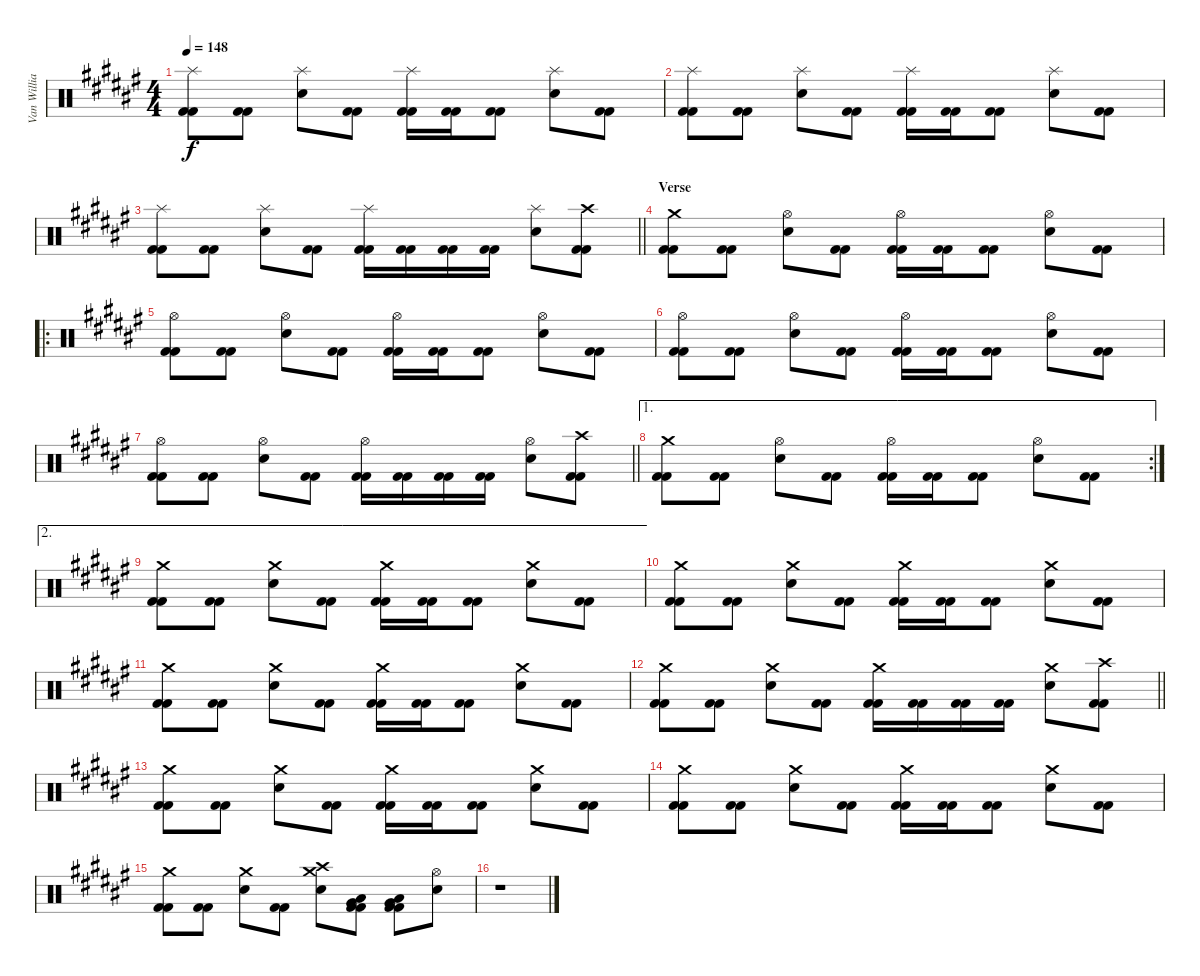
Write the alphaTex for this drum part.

\track ("Van Williams" "Van Willia") {instrument percussion}
\staff {score}
\articulation defaults
\ts (4 4)
\tempo 148
\clef neutral
\ks f#
("Splash (hit)" "Kick (hit) 2" "Kick (hit) 2").8{dy f} ("Kick (hit) 2" "Kick (hit) 2").8 ("Splash (hit)" "Electric Snare (hit)").8 ("Kick (hit) 2" "Kick (hit) 2").8 ("Splash (hit)" "Kick (hit) 2" "Kick (hit) 2").16 ("Kick (hit) 2" "Kick (hit) 2").16 ("Kick (hit) 2" "Kick (hit) 2").8 ("Splash (hit)" "Electric Snare (hit)").8 ("Kick (hit) 2" "Kick (hit) 2").8 |
("Splash (hit)" "Kick (hit) 2" "Kick (hit) 2").8 ("Kick (hit) 2" "Kick (hit) 2").8 ("Splash (hit)" "Electric Snare (hit)").8 ("Kick (hit) 2" "Kick (hit) 2").8 ("Splash (hit)" "Kick (hit) 2" "Kick (hit) 2").16 ("Kick (hit) 2" "Kick (hit) 2").16 ("Kick (hit) 2" "Kick (hit) 2").8 ("Splash (hit)" "Electric Snare (hit)").8 ("Kick (hit) 2" "Kick (hit) 2").8 |
\barLineRight lightlight
("Splash (hit)" "Kick (hit) 2" "Kick (hit) 2").8 ("Kick (hit) 2" "Kick (hit) 2").8 ("Splash (hit)" "Electric Snare (hit)").8 ("Kick (hit) 2" "Kick (hit) 2").8 ("Splash (hit)" "Kick (hit) 2" "Kick (hit) 2").16 ("Kick (hit) 2" "Kick (hit) 2").16 ("Kick (hit) 2" "Kick (hit) 2").16 ("Kick (hit) 2" "Kick (hit) 2").16 ("Splash (hit)" "Electric Snare (hit)").8 ("Crash high (hit)" "Kick (hit) 2" "Kick (hit) 2").8 |
\section ("" "Verse")
("Crash medium (hit)" "Kick (hit) 2" "Kick (hit) 2").8 ("Kick (hit) 2" "Kick (hit) 2").8 ("Hi-Hat (open)" "Electric Snare (hit)").8 ("Kick (hit) 2" "Kick (hit) 2").8 ("Hi-Hat (open)" "Kick (hit) 2" "Kick (hit) 2").16 ("Kick (hit) 2" "Kick (hit) 2").16 ("Kick (hit) 2" "Kick (hit) 2").8 ("Hi-Hat (open)" "Electric Snare (hit)").8 ("Kick (hit) 2" "Kick (hit) 2").8 |
\ro
("Hi-Hat (open)" "Kick (hit) 2" "Kick (hit) 2").8 ("Kick (hit) 2" "Kick (hit) 2").8 ("Hi-Hat (open)" "Electric Snare (hit)").8 ("Kick (hit) 2" "Kick (hit) 2").8 ("Hi-Hat (open)" "Kick (hit) 2" "Kick (hit) 2").16 ("Kick (hit) 2" "Kick (hit) 2").16 ("Kick (hit) 2" "Kick (hit) 2").8 ("Hi-Hat (open)" "Electric Snare (hit)").8 ("Kick (hit) 2" "Kick (hit) 2").8 |
("Hi-Hat (open)" "Kick (hit) 2" "Kick (hit) 2").8 ("Kick (hit) 2" "Kick (hit) 2").8 ("Hi-Hat (open)" "Electric Snare (hit)").8 ("Kick (hit) 2" "Kick (hit) 2").8 ("Hi-Hat (open)" "Kick (hit) 2" "Kick (hit) 2").16 ("Kick (hit) 2" "Kick (hit) 2").16 ("Kick (hit) 2" "Kick (hit) 2").8 ("Hi-Hat (open)" "Electric Snare (hit)").8 ("Kick (hit) 2" "Kick (hit) 2").8 |
\barLineRight lightlight
("Hi-Hat (open)" "Kick (hit) 2" "Kick (hit) 2").8 ("Kick (hit) 2" "Kick (hit) 2").8 ("Hi-Hat (open)" "Electric Snare (hit)").8 ("Kick (hit) 2" "Kick (hit) 2").8 ("Hi-Hat (open)" "Kick (hit) 2" "Kick (hit) 2").16 ("Kick (hit) 2" "Kick (hit) 2").16 ("Kick (hit) 2" "Kick (hit) 2").16 ("Kick (hit) 2" "Kick (hit) 2").16 ("Hi-Hat (open)" "Electric Snare (hit)").8 ("Crash high (hit)" "Kick (hit) 2" "Kick (hit) 2").8 |
\ae 1
\rc 2
("Crash medium (hit)" "Kick (hit) 2" "Kick (hit) 2").8 ("Kick (hit) 2" "Kick (hit) 2").8 ("Hi-Hat (open)" "Electric Snare (hit)").8 ("Kick (hit) 2" "Kick (hit) 2").8 ("Hi-Hat (open)" "Kick (hit) 2" "Kick (hit) 2").16 ("Kick (hit) 2" "Kick (hit) 2").16 ("Kick (hit) 2" "Kick (hit) 2").8 ("Hi-Hat (open)" "Electric Snare (hit)").8 ("Kick (hit) 2" "Kick (hit) 2").8 |
\ae 2
("Crash medium (hit)" "Kick (hit) 2" "Kick (hit) 2").8 ("Kick (hit) 2" "Kick (hit) 2").8 ("Crash medium (hit)" "Electric Snare (hit)").8 ("Kick (hit) 2" "Kick (hit) 2").8 ("Crash medium (hit)" "Kick (hit) 2" "Kick (hit) 2").16 ("Kick (hit) 2" "Kick (hit) 2").16 ("Kick (hit) 2" "Kick (hit) 2").8 ("Crash medium (hit)" "Electric Snare (hit)").8 ("Kick (hit) 2" "Kick (hit) 2").8 |
("Crash medium (hit)" "Kick (hit) 2" "Kick (hit) 2").8 ("Kick (hit) 2" "Kick (hit) 2").8 ("Crash medium (hit)" "Electric Snare (hit)").8 ("Kick (hit) 2" "Kick (hit) 2").8 ("Crash medium (hit)" "Kick (hit) 2" "Kick (hit) 2").16 ("Kick (hit) 2" "Kick (hit) 2").16 ("Kick (hit) 2" "Kick (hit) 2").8 ("Crash medium (hit)" "Electric Snare (hit)").8 ("Kick (hit) 2" "Kick (hit) 2").8 |
("Crash medium (hit)" "Kick (hit) 2" "Kick (hit) 2").8 ("Kick (hit) 2" "Kick (hit) 2").8 ("Crash medium (hit)" "Electric Snare (hit)").8 ("Kick (hit) 2" "Kick (hit) 2").8 ("Crash medium (hit)" "Kick (hit) 2" "Kick (hit) 2").16 ("Kick (hit) 2" "Kick (hit) 2").16 ("Kick (hit) 2" "Kick (hit) 2").8 ("Crash medium (hit)" "Electric Snare (hit)").8 ("Kick (hit) 2" "Kick (hit) 2").8 |
\barLineRight lightlight
("Crash medium (hit)" "Kick (hit) 2" "Kick (hit) 2").8 ("Kick (hit) 2" "Kick (hit) 2").8 ("Crash medium (hit)" "Electric Snare (hit)").8 ("Kick (hit) 2" "Kick (hit) 2").8 ("Crash medium (hit)" "Kick (hit) 2" "Kick (hit) 2").16 ("Kick (hit) 2" "Kick (hit) 2").16 ("Kick (hit) 2" "Kick (hit) 2").16 ("Kick (hit) 2" "Kick (hit) 2").16 ("Crash medium (hit)" "Electric Snare (hit)").8 ("Crash high (hit)" "Kick (hit) 2" "Kick (hit) 2").8 |
("Crash medium (hit)" "Kick (hit) 2" "Kick (hit) 2").8 ("Kick (hit) 2" "Kick (hit) 2").8 ("Crash medium (hit)" "Electric Snare (hit)").8 ("Kick (hit) 2" "Kick (hit) 2").8 ("Crash medium (hit)" "Kick (hit) 2" "Kick (hit) 2").16 ("Kick (hit) 2" "Kick (hit) 2").16 ("Kick (hit) 2" "Kick (hit) 2").8 ("Crash medium (hit)" "Electric Snare (hit)").8 ("Kick (hit) 2" "Kick (hit) 2").8 |
("Crash medium (hit)" "Kick (hit) 2" "Kick (hit) 2").8 ("Kick (hit) 2" "Kick (hit) 2").8 ("Crash medium (hit)" "Electric Snare (hit)").8 ("Kick (hit) 2" "Kick (hit) 2").8 ("Crash medium (hit)" "Kick (hit) 2" "Kick (hit) 2").16 ("Kick (hit) 2" "Kick (hit) 2").16 ("Kick (hit) 2" "Kick (hit) 2").8 ("Crash medium (hit)" "Electric Snare (hit)").8 ("Kick (hit) 2" "Kick (hit) 2").8 |
("Crash medium (hit)" "Kick (hit) 2" "Kick (hit) 2").8 ("Kick (hit) 2" "Kick (hit) 2").8 ("Crash medium (hit)" "Electric Snare (hit)").8 ("Kick (hit) 2" "Kick (hit) 2").8 ("Crash high (hit)" "Crash medium (hit)" "Electric Snare (hit)").8 ("Low Tom (hit)" "Very Low Tom (hit)" "Kick (hit) 2" "Kick (hit) 2").8 ("Very Low Tom (hit)" "Low Floor Tom (hit)" "Kick (hit) 2" "Kick (hit) 2").8 ("Hi-Hat (open)" "Electric Snare (hit)").8 |
r.1
